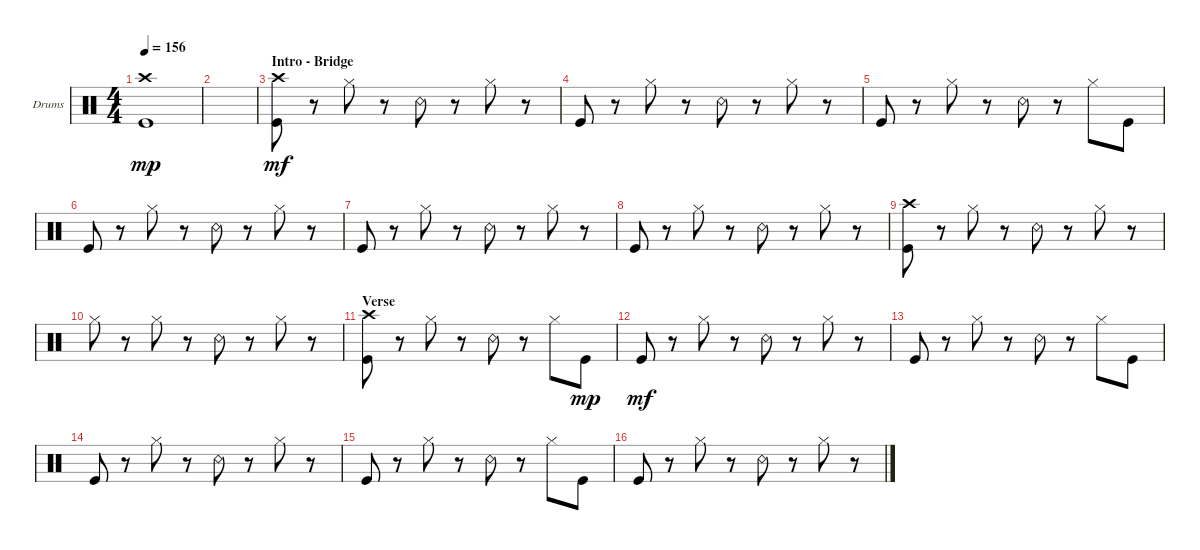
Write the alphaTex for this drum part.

\defaultSystemsLayout 4
\bracketExtendMode groupsimilarinstruments
\firstSystemTrackNameOrientation horizontal
\otherSystemsTrackNameOrientation horizontal
\track ("Drumkit" "Drums") {instrument percussion}
\staff {score}
\articulation defaults
\ts (4 4)
\tempo 156
\clef neutral
\ks c
("Kick (hit)" "Crash high (hit)").1{dy mp} |
|
\section ("" "Intro - Bridge")
("Crash high (hit)" "Kick (hit)").8{dy mf} r.8 "Hi-Hat (closed)".8 r.8 "Snare (rim shot)".8 r.8 "Hi-Hat (closed)".8 r.8 |
"Kick (hit)".8 r.8 "Hi-Hat (closed)".8 r.8 "Snare (rim shot)".8 r.8 "Hi-Hat (closed)".8 r.8 |
"Kick (hit)".8 r.8 "Hi-Hat (closed)".8 r.8 "Snare (rim shot)".8 r.8 "Hi-Hat (closed)".8 "Kick (hit)".8 |
"Kick (hit)".8 r.8 "Hi-Hat (closed)".8 r.8 "Snare (rim shot)".8 r.8 "Hi-Hat (closed)".8 r.8 |
"Kick (hit)".8 r.8 "Hi-Hat (closed)".8 r.8 "Snare (rim shot)".8 r.8 "Hi-Hat (closed)".8 r.8 |
"Kick (hit)".8 r.8 "Hi-Hat (closed)".8 r.8 "Snare (rim shot)".8 r.8 "Hi-Hat (closed)".8 r.8 |
("Crash high (hit)" "Kick (hit)").8 r.8 "Hi-Hat (closed)".8 r.8 "Snare (rim shot)".8 r.8 "Hi-Hat (closed)".8 r.8 |
"Hi-Hat (closed)".8 r.8 "Hi-Hat (closed)".8 r.8 "Snare (rim shot)".8 r.8 "Hi-Hat (closed)".8 r.8 |
\section ("" "Verse")
("Crash high (hit)" "Kick (hit)").8 r.8 "Hi-Hat (closed)".8 r.8 "Snare (rim shot)".8 r.8 "Hi-Hat (closed)".8 "Kick (hit)".8{dy mp} |
"Kick (hit)".8{dy mf} r.8 "Hi-Hat (closed)".8 r.8 "Snare (rim shot)".8 r.8 "Hi-Hat (closed)".8 r.8 |
"Kick (hit)".8 r.8 "Hi-Hat (closed)".8 r.8 "Snare (rim shot)".8 r.8 "Hi-Hat (closed)".8 "Kick (hit)".8 |
"Kick (hit)".8 r.8 "Hi-Hat (closed)".8 r.8 "Snare (rim shot)".8 r.8 "Hi-Hat (closed)".8 r.8 |
"Kick (hit)".8 r.8 "Hi-Hat (closed)".8 r.8 "Snare (rim shot)".8 r.8 "Hi-Hat (closed)".8 "Kick (hit)".8 |
"Kick (hit)".8 r.8 "Hi-Hat (closed)".8 r.8 "Snare (rim shot)".8 r.8 "Hi-Hat (closed)".8 r.8
